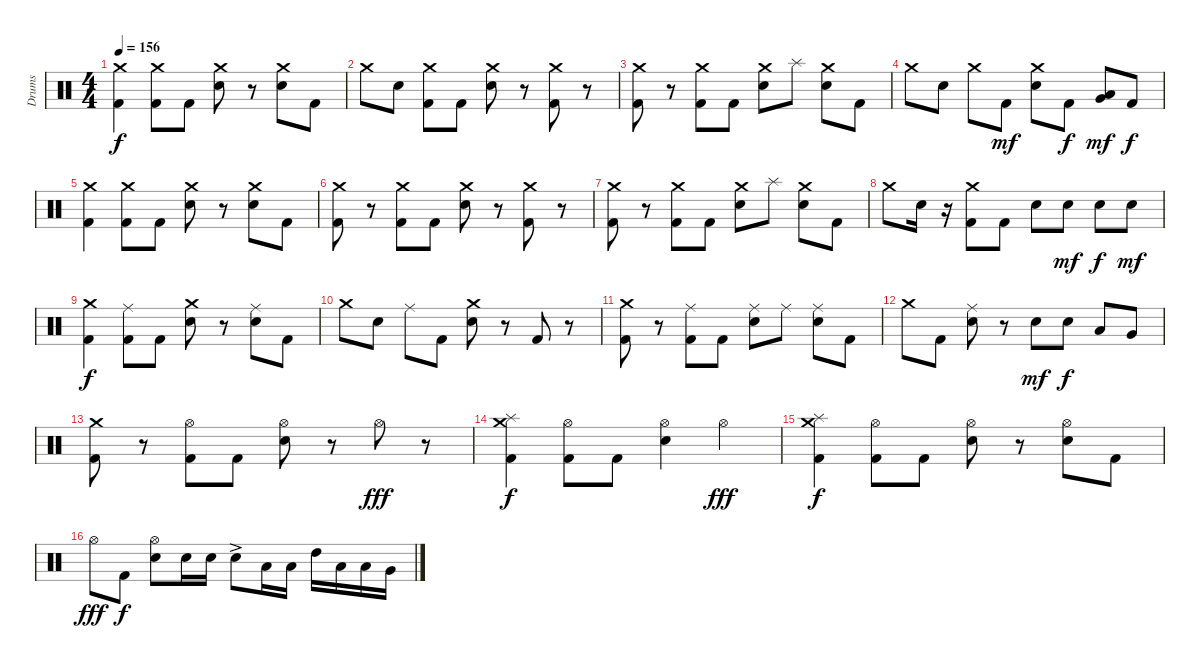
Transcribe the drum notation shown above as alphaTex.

\track ("Drums" "Drums") {instrument percussion}
\staff {score}
\articulation defaults
\ts (4 4)
\tempo 156
\clef neutral
\ks c
("Crash medium (hit)" "Kick (hit) 2").4{dy f} ("Crash medium (hit)" "Kick (hit) 2").8 "Kick (hit) 2".8 ("Crash medium (hit)" "Electric Snare (hit)").8 r.8 ("Crash medium (hit)" "Electric Snare (hit)").8 "Kick (hit) 2".8 |
"Crash medium (hit)".8 "Electric Snare (hit)".8 ("Crash medium (hit)" "Kick (hit) 2").8 "Kick (hit) 2".8 ("Crash medium (hit)" "Electric Snare (hit)").8 r.8 ("Crash medium (hit)" "Kick (hit) 2").8 r.8 |
("Crash medium (hit)" "Kick (hit) 2").8 r.8 ("Crash medium (hit)" "Kick (hit) 2").8 "Kick (hit) 2".8 ("Crash medium (hit)" "Electric Snare (hit)").8 "Splash (hit)".8 ("Crash medium (hit)" "Electric Snare (hit)").8 "Kick (hit) 2".8 |
"Crash medium (hit)".8 "Electric Snare (hit)".8 "Crash medium (hit)".8 "Kick (hit) 2".8{dy mf} ("Crash medium (hit)" "Electric Snare (hit)").8 "Kick (hit) 2".8{dy f} ("Low Tom (hit)" "Very Low Tom (hit)").8{dy mf} "Kick (hit) 2".8{dy f} |
("Crash medium (hit)" "Kick (hit) 2").4 ("Crash medium (hit)" "Kick (hit) 2").8 "Kick (hit) 2".8 ("Crash medium (hit)" "Electric Snare (hit)").8 r.8 ("Crash medium (hit)" "Electric Snare (hit)").8 "Kick (hit) 2".8 |
("Crash medium (hit)" "Kick (hit) 2").8 r.8 ("Crash medium (hit)" "Kick (hit) 2").8 "Kick (hit) 2".8 ("Crash medium (hit)" "Electric Snare (hit)").8 r.8 ("Crash medium (hit)" "Kick (hit) 2").8 r.8 |
("Crash medium (hit)" "Kick (hit) 2").8 r.8 ("Crash medium (hit)" "Kick (hit) 2").8 "Kick (hit) 2".8 ("Crash medium (hit)" "Electric Snare (hit)").8 "Splash (hit)".8 ("Crash medium (hit)" "Electric Snare (hit)").8 "Kick (hit) 2".8 |
"Crash medium (hit)".8 "Electric Snare (hit)".16 r.16 ("Crash medium (hit)" "Kick (hit) 2").8 "Kick (hit) 2".8 "Electric Snare (hit)".8 "Electric Snare (hit)".8{dy mf} "Electric Snare (hit)".8{dy f} "Electric Snare (hit)".8{dy mf} |
("Crash medium (hit)" "Kick (hit) 2").4{dy f} ("Ride (middle)" "Kick (hit) 2").8 "Kick (hit) 2".8 ("Crash medium (hit)" "Electric Snare (hit)").8 r.8 ("Ride (middle)" "Electric Snare (hit)").8 "Kick (hit) 2".8 |
"Crash medium (hit)".8 "Electric Snare (hit)".8 "Ride (middle)".8 "Kick (hit) 2".8 ("Crash medium (hit)" "Electric Snare (hit)").8 r.8 "Kick (hit) 2".8 r.8 |
("Crash medium (hit)" "Kick (hit) 2").8 r.8 ("Ride (middle)" "Kick (hit) 2").8 "Kick (hit) 2".8 ("Ride (middle)" "Electric Snare (hit)").8 "Ride (middle)".8 ("Ride (middle)" "Electric Snare (hit)").8 "Kick (hit) 2".8 |
"Crash medium (hit)".8 "Kick (hit) 2".8 ("Ride (middle)" "Electric Snare (hit)").8 r.8 "Electric Snare (hit)".8{dy mf} "Electric Snare (hit)".8{dy f} "Low Tom (hit)".8 "Very Low Tom (hit)".8 |
("Crash medium (hit)" "Kick (hit) 2").8 r.8 ("Hi-Hat (open)" "Kick (hit) 2").8 "Kick (hit) 2".8 ("Hi-Hat (open)" "Electric Snare (hit)").8 r.8 "Hi-Hat (open)".8{dy fff} r.8 |
("Crash medium (hit)" "Splash (hit)" "Kick (hit) 2").4{dy f} ("Hi-Hat (open)" "Kick (hit) 2").8 "Kick (hit) 2".8 ("Hi-Hat (open)" "Electric Snare (hit)").4 "Hi-Hat (open)".4{dy fff} |
("Crash medium (hit)" "Splash (hit)" "Kick (hit) 2").4{dy f} ("Hi-Hat (open)" "Kick (hit) 2").8 "Kick (hit) 2".8 ("Hi-Hat (open)" "Electric Snare (hit)").8 r.8 ("Hi-Hat (open)" "Electric Snare (hit)").8 "Kick (hit) 2".8 |
"Hi-Hat (open)".8{dy fff} "Kick (hit) 2".8{dy f} ("Hi-Hat (open)" "Electric Snare (hit)").8 "Electric Snare (hit)".16 "Electric Snare (hit)".16 "Electric Snare (hit)"{ac}.8 "Low Tom (hit)".16 "Low Tom (hit)".16 "High Tom (hit)".16 "Low Tom (hit)".16 "Low Tom (hit)".16 "Very Low Tom (hit)".16
